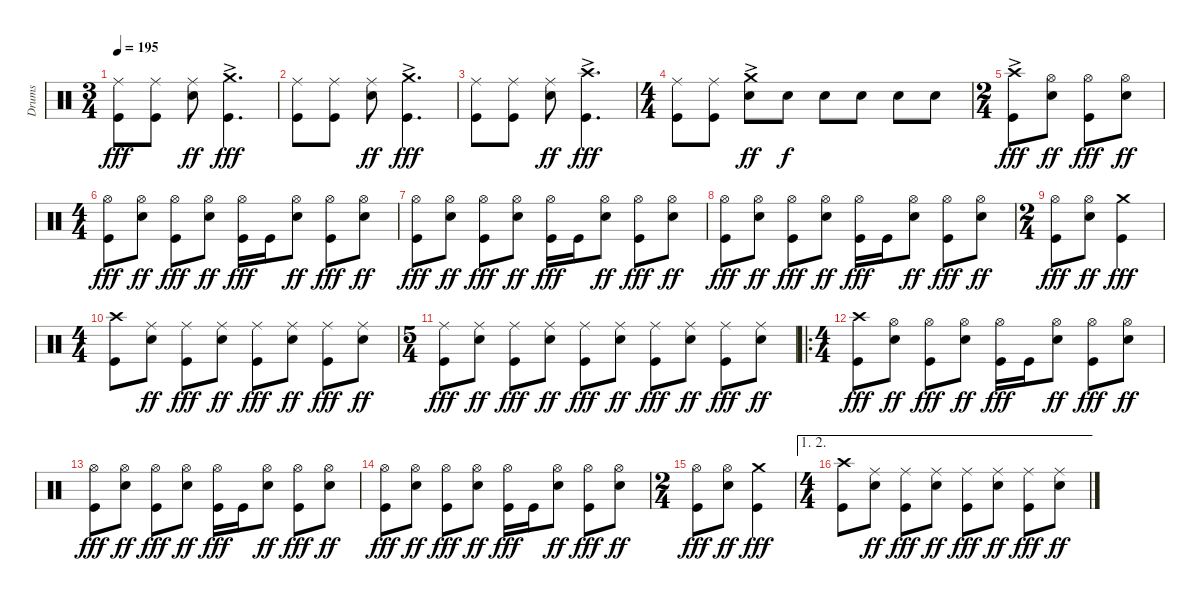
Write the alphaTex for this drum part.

\track ("Drums" "Drums") {instrument percussion}
\staff {score}
\articulation defaults
\ts (3 4)
\tempo 195
\clef neutral
\ks c
("Ride (middle)" "Kick (hit)").8{dy fff} ("Ride (middle)" "Kick (hit)").8 ("Ride (middle)" "Electric Snare (hit)").8{dy ff} ("Crash medium (hit)"{ac} "Kick (hit)").4{d dy fff} |
("Ride (middle)" "Kick (hit)").8 ("Ride (middle)" "Kick (hit)").8 ("Ride (middle)" "Electric Snare (hit)").8{dy ff} ("Crash medium (hit)"{ac} "Kick (hit)").4{d dy fff} |
("Ride (middle)" "Kick (hit)").8 ("Ride (middle)" "Kick (hit)").8 ("Ride (middle)" "Electric Snare (hit)").8{dy ff} ("Crash high (hit)"{ac} "Kick (hit)").4{d dy fff} |
\ts (4 4)
("Ride (middle)" "Kick (hit)").8 ("Ride (middle)" "Kick (hit)").8 ("Crash medium (hit)"{ac} "Electric Snare (hit)").8{dy ff} "Electric Snare (hit)".8{dy f} "Electric Snare (hit)".8 "Electric Snare (hit)".8 "Electric Snare (hit)".8 "Electric Snare (hit)".8 |
\ts (2 4)
("Crash high (hit)"{ac} "Kick (hit)").8{dy fff} ("Hi-Hat (open)" "Electric Snare (hit)").8{dy ff} ("Hi-Hat (open)" "Kick (hit)").8{dy fff} ("Hi-Hat (open)" "Electric Snare (hit)").8{dy ff} |
\ts (4 4)
("Hi-Hat (open)" "Kick (hit)").8{dy fff} ("Hi-Hat (open)" "Electric Snare (hit)").8{dy ff} ("Hi-Hat (open)" "Kick (hit)").8{dy fff} ("Hi-Hat (open)" "Electric Snare (hit)").8{dy ff} ("Hi-Hat (open)" "Kick (hit)").16{dy fff} "Kick (hit)".16 ("Hi-Hat (open)" "Electric Snare (hit)").8{dy ff} ("Hi-Hat (open)" "Kick (hit)").8{dy fff} ("Hi-Hat (open)" "Electric Snare (hit)").8{dy ff} |
("Hi-Hat (open)" "Kick (hit)").8{dy fff} ("Hi-Hat (open)" "Electric Snare (hit)").8{dy ff} ("Hi-Hat (open)" "Kick (hit)").8{dy fff} ("Hi-Hat (open)" "Electric Snare (hit)").8{dy ff} ("Hi-Hat (open)" "Kick (hit)").16{dy fff} "Kick (hit)".16 ("Hi-Hat (open)" "Electric Snare (hit)").8{dy ff} ("Hi-Hat (open)" "Kick (hit)").8{dy fff} ("Hi-Hat (open)" "Electric Snare (hit)").8{dy ff} |
("Hi-Hat (open)" "Kick (hit)").8{dy fff} ("Hi-Hat (open)" "Electric Snare (hit)").8{dy ff} ("Hi-Hat (open)" "Kick (hit)").8{dy fff} ("Hi-Hat (open)" "Electric Snare (hit)").8{dy ff} ("Hi-Hat (open)" "Kick (hit)").16{dy fff} "Kick (hit)".16 ("Hi-Hat (open)" "Electric Snare (hit)").8{dy ff} ("Hi-Hat (open)" "Kick (hit)").8{dy fff} ("Hi-Hat (open)" "Electric Snare (hit)").8{dy ff} |
\ts (2 4)
("Hi-Hat (open)" "Kick (hit)").8{dy fff} ("Hi-Hat (open)" "Electric Snare (hit)").8{dy ff} ("Crash medium (hit)" "Kick (hit)").4{dy fff} |
\ts (4 4)
("Crash high (hit)" "Kick (hit)").8 ("Ride (middle)" "Electric Snare (hit)").8{dy ff} ("Ride (middle)" "Kick (hit)").8{dy fff} ("Ride (middle)" "Electric Snare (hit)").8{dy ff} ("Ride (middle)" "Kick (hit)").8{dy fff} ("Ride (middle)" "Electric Snare (hit)").8{dy ff} ("Ride (middle)" "Kick (hit)").8{dy fff} ("Ride (middle)" "Electric Snare (hit)").8{dy ff} |
\ts (5 4)
("Ride (middle)" "Kick (hit)").8{dy fff} ("Ride (middle)" "Electric Snare (hit)").8{dy ff} ("Ride (middle)" "Kick (hit)").8{dy fff} ("Ride (middle)" "Electric Snare (hit)").8{dy ff} ("Ride (middle)" "Kick (hit)").8{dy fff} ("Ride (middle)" "Electric Snare (hit)").8{dy ff} ("Ride (middle)" "Kick (hit)").8{dy fff} ("Ride (middle)" "Electric Snare (hit)").8{dy ff} ("Ride (middle)" "Kick (hit)").8{dy fff} ("Ride (middle)" "Electric Snare (hit)").8{dy ff} |
\ro
\ts (4 4)
("Crash high (hit)" "Kick (hit)").8{dy fff} ("Hi-Hat (open)" "Electric Snare (hit)").8{dy ff} ("Hi-Hat (open)" "Kick (hit)").8{dy fff} ("Hi-Hat (open)" "Electric Snare (hit)").8{dy ff} ("Hi-Hat (open)" "Kick (hit)").16{dy fff} "Kick (hit)".16 ("Hi-Hat (open)" "Electric Snare (hit)").8{dy ff} ("Hi-Hat (open)" "Kick (hit)").8{dy fff} ("Hi-Hat (open)" "Electric Snare (hit)").8{dy ff} |
("Hi-Hat (open)" "Kick (hit)").8{dy fff} ("Hi-Hat (open)" "Electric Snare (hit)").8{dy ff} ("Hi-Hat (open)" "Kick (hit)").8{dy fff} ("Hi-Hat (open)" "Electric Snare (hit)").8{dy ff} ("Hi-Hat (open)" "Kick (hit)").16{dy fff} "Kick (hit)".16 ("Hi-Hat (open)" "Electric Snare (hit)").8{dy ff} ("Hi-Hat (open)" "Kick (hit)").8{dy fff} ("Hi-Hat (open)" "Electric Snare (hit)").8{dy ff} |
("Hi-Hat (open)" "Kick (hit)").8{dy fff} ("Hi-Hat (open)" "Electric Snare (hit)").8{dy ff} ("Hi-Hat (open)" "Kick (hit)").8{dy fff} ("Hi-Hat (open)" "Electric Snare (hit)").8{dy ff} ("Hi-Hat (open)" "Kick (hit)").16{dy fff} "Kick (hit)".16 ("Hi-Hat (open)" "Electric Snare (hit)").8{dy ff} ("Hi-Hat (open)" "Kick (hit)").8{dy fff} ("Hi-Hat (open)" "Electric Snare (hit)").8{dy ff} |
\ts (2 4)
("Hi-Hat (open)" "Kick (hit)").8{dy fff} ("Hi-Hat (open)" "Electric Snare (hit)").8{dy ff} ("Crash medium (hit)" "Kick (hit)").4{dy fff} |
\ae (1 2)
\ts (4 4)
("Crash high (hit)" "Kick (hit)").8 ("Ride (middle)" "Electric Snare (hit)").8{dy ff} ("Ride (middle)" "Kick (hit)").8{dy fff} ("Ride (middle)" "Electric Snare (hit)").8{dy ff} ("Ride (middle)" "Kick (hit)").8{dy fff} ("Ride (middle)" "Electric Snare (hit)").8{dy ff} ("Ride (middle)" "Kick (hit)").8{dy fff} ("Ride (middle)" "Electric Snare (hit)").8{dy ff}
